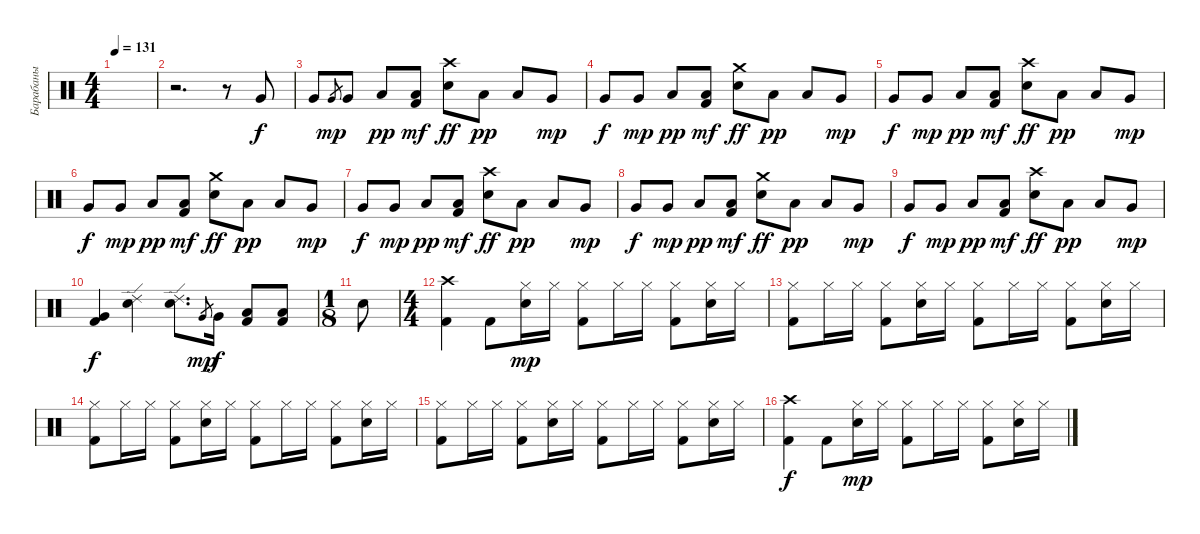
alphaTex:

\track ("Барабаны" "Барабаны") {instrument percussion}
\staff {score}
\articulation defaults
\ts (4 4)
\tempo 131
\clef neutral
\ks c
|
r.2{d} r.8 "Very Low Tom (hit)".8 |
"Very Low Tom (hit)".8{dy f} "Very Low Tom (hit)".8{gr dy mp} "Very Low Tom (hit)".8 "Low Floor Tom (hit)".8{dy pp} ("Low Floor Tom (hit)" "Kick (hit) 2").8{dy mf} ("Crash high (hit)" "Snare (hit) 2").8{dy ff} "Low Floor Tom (hit)".8{dy pp} "Low Floor Tom (hit)".8 "Very Low Tom (hit)".8{dy mp} |
"Very Low Tom (hit)".8{dy f} "Very Low Tom (hit)".8{dy mp} "Low Floor Tom (hit)".8{dy pp} ("Low Floor Tom (hit)" "Kick (hit) 2").8{dy mf} ("Crash medium (hit)" "Snare (hit) 2").8{dy ff} "Low Floor Tom (hit)".8{dy pp} "Low Floor Tom (hit)".8 "Very Low Tom (hit)".8{dy mp} |
"Very Low Tom (hit)".8{dy f} "Very Low Tom (hit)".8{dy mp} "Low Floor Tom (hit)".8{dy pp} ("Low Floor Tom (hit)" "Kick (hit) 2").8{dy mf} ("Crash high (hit)" "Snare (hit) 2").8{dy ff} "Low Floor Tom (hit)".8{dy pp} "Low Floor Tom (hit)".8 "Very Low Tom (hit)".8{dy mp} |
"Very Low Tom (hit)".8{dy f} "Very Low Tom (hit)".8{dy mp} "Low Floor Tom (hit)".8{dy pp} ("Low Floor Tom (hit)" "Kick (hit) 2").8{dy mf} ("Crash medium (hit)" "Snare (hit) 2").8{dy ff} "Low Floor Tom (hit)".8{dy pp} "Low Floor Tom (hit)".8 "Very Low Tom (hit)".8{dy mp} |
"Very Low Tom (hit)".8{dy f} "Very Low Tom (hit)".8{dy mp} "Low Floor Tom (hit)".8{dy pp} ("Low Floor Tom (hit)" "Kick (hit) 2").8{dy mf} ("Crash high (hit)" "Snare (hit) 2").8{dy ff} "Low Floor Tom (hit)".8{dy pp} "Low Floor Tom (hit)".8 "Very Low Tom (hit)".8{dy mp} |
"Very Low Tom (hit)".8{dy f} "Very Low Tom (hit)".8{dy mp} "Low Floor Tom (hit)".8{dy pp} ("Low Floor Tom (hit)" "Kick (hit) 2").8{dy mf} ("Crash medium (hit)" "Snare (hit) 2").8{dy ff} "Low Floor Tom (hit)".8{dy pp} "Low Floor Tom (hit)".8 "Very Low Tom (hit)".8{dy mp} |
"Very Low Tom (hit)".8{dy f} "Very Low Tom (hit)".8{dy mp} "Low Floor Tom (hit)".8{dy pp} ("Low Floor Tom (hit)" "Kick (hit) 2").8{dy mf} ("Crash high (hit)" "Snare (hit) 2").8{dy ff} "Low Floor Tom (hit)".8{dy pp} "Low Floor Tom (hit)".8 "Very Low Tom (hit)".8{dy mp} |
("Kick (hit) 2" "Very Low Tom (hit)").4{dy f} ("Ride (edge) 2" "Snare (hit) 2").4 ("Ride (edge) 2" "Snare (hit) 2").8{d} "Very Low Tom (hit)".8{gr dy mp} "Very Low Tom (hit)".16{dy f} ("Kick (hit) 2" "Low Floor Tom (hit)").8 ("Kick (hit) 2" "Low Floor Tom (hit)").8 |
\ts (1 8)
"Snare (hit) 2".8 |
\ts (4 4)
("Crash high (hit)" "Kick (hit) 2").4 "Kick (hit) 2".8 ("Hi-Hat (closed)" "Snare (hit) 2").16{dy mp} "Hi-Hat (closed)".16 ("Hi-Hat (closed)" "Kick (hit) 2").8 "Hi-Hat (closed)".16 "Hi-Hat (closed)".16 ("Hi-Hat (closed)" "Kick (hit) 2").8 ("Hi-Hat (closed)" "Snare (hit) 2").16 "Hi-Hat (closed)".16 |
("Hi-Hat (closed)" "Kick (hit) 2").8 "Hi-Hat (closed)".16 "Hi-Hat (closed)".16 ("Hi-Hat (closed)" "Kick (hit) 2").8 ("Snare (hit) 2" "Hi-Hat (closed)").16 "Hi-Hat (closed)".16 ("Hi-Hat (closed)" "Kick (hit) 2").8 "Hi-Hat (closed)".16 "Hi-Hat (closed)".16 ("Hi-Hat (closed)" "Kick (hit) 2").8 ("Snare (hit) 2" "Hi-Hat (closed)").16 "Hi-Hat (closed)".16 |
("Hi-Hat (closed)" "Kick (hit) 2").8 "Hi-Hat (closed)".16 "Hi-Hat (closed)".16 ("Hi-Hat (closed)" "Kick (hit) 2").8 ("Snare (hit) 2" "Hi-Hat (closed)").16 "Hi-Hat (closed)".16 ("Hi-Hat (closed)" "Kick (hit) 2").8 "Hi-Hat (closed)".16 "Hi-Hat (closed)".16 ("Hi-Hat (closed)" "Kick (hit) 2").8 ("Snare (hit) 2" "Hi-Hat (closed)").16 "Hi-Hat (closed)".16 |
("Hi-Hat (closed)" "Kick (hit) 2").8 "Hi-Hat (closed)".16 "Hi-Hat (closed)".16 ("Hi-Hat (closed)" "Kick (hit) 2").8 ("Snare (hit) 2" "Hi-Hat (closed)").16 "Hi-Hat (closed)".16 ("Hi-Hat (closed)" "Kick (hit) 2").8 "Hi-Hat (closed)".16 "Hi-Hat (closed)".16 ("Hi-Hat (closed)" "Kick (hit) 2").8 ("Snare (hit) 2" "Hi-Hat (closed)").16 "Hi-Hat (closed)".16 |
("Crash high (hit)" "Kick (hit) 2").4{dy f} "Kick (hit) 2".8 ("Hi-Hat (closed)" "Snare (hit) 2").16{dy mp} "Hi-Hat (closed)".16 ("Hi-Hat (closed)" "Kick (hit) 2").8 "Hi-Hat (closed)".16 "Hi-Hat (closed)".16 ("Hi-Hat (closed)" "Kick (hit) 2").8 ("Hi-Hat (closed)" "Snare (hit) 2").16 "Hi-Hat (closed)".16
